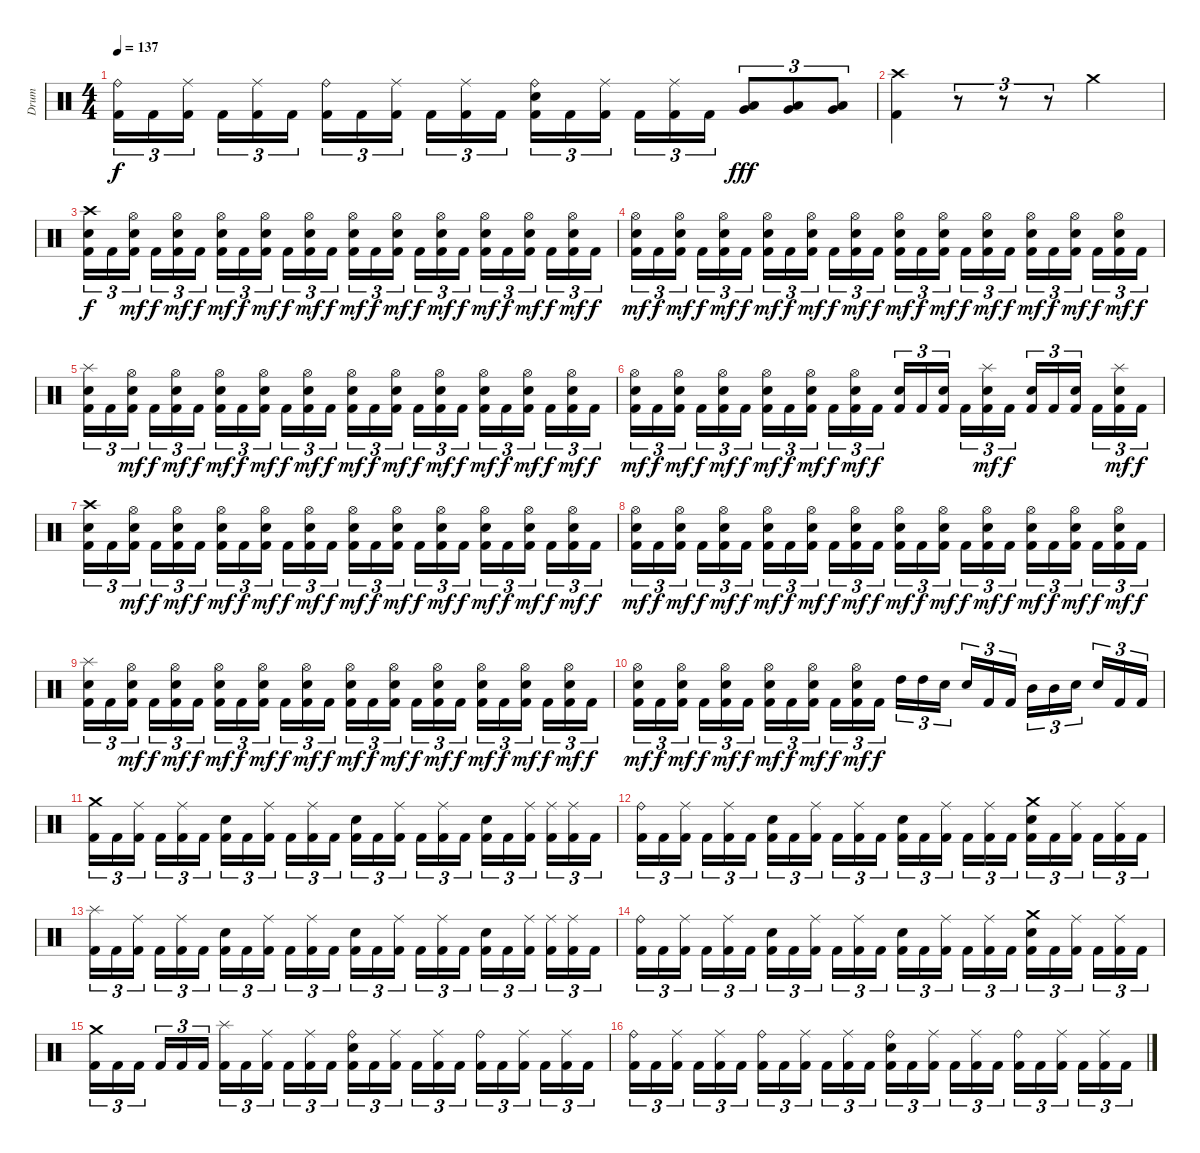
\track ("Drum" "Drum") {instrument percussion}
\staff {score}
\articulation defaults
\ts (4 4)
\tempo 137
\clef neutral
\ks c
("Ride (bell)" "Kick (hit) 2").16{tu (3 2) dy f} "Kick (hit) 2".16{tu (3 2)} ("Ride (middle)" "Kick (hit) 2").16{tu (3 2) beam splitsecondary} "Kick (hit) 2".16{tu (3 2)} ("Ride (middle)" "Kick (hit) 2").16{tu (3 2)} "Kick (hit) 2".16{tu (3 2)} ("Ride (bell)" "Kick (hit) 2").16{tu (3 2)} "Kick (hit) 2".16{tu (3 2)} ("Ride (middle)" "Kick (hit) 2").16{tu (3 2) beam splitsecondary} "Kick (hit) 2".16{tu (3 2)} ("Ride (middle)" "Kick (hit) 2").16{tu (3 2)} "Kick (hit) 2".16{tu (3 2)} ("Ride (bell)" "Electric Snare (hit)" "Kick (hit) 2").16{tu (3 2)} "Kick (hit) 2".16{tu (3 2)} ("Ride (middle)" "Kick (hit) 2").16{tu (3 2) beam splitsecondary} "Kick (hit) 2".16{tu (3 2)} ("Ride (middle)" "Kick (hit) 2").16{tu (3 2)} "Kick (hit) 2".16{tu (3 2)} ("Very Low Tom (hit)" "Low Floor Tom (hit)").8{tu (3 2) bd 60 dy fff} ("Very Low Tom (hit)" "Low Floor Tom (hit)").8{tu (3 2) bd 60} ("Very Low Tom (hit)" "Low Floor Tom (hit)").8{tu (3 2) bd 60} |
("Crash high (hit)" "Kick (hit) 2").4 r.8{tu (3 2)} r.8{tu (3 2)} r.8{tu (3 2) volume 0} "Crash medium (hit)".2{volume 13} |
("Crash high (hit)" "Electric Snare (hit)" "Kick (hit) 2").16{tu (3 2) dy f} "Kick (hit) 2".16{tu (3 2)} ("Hi-Hat (open)" "Electric Snare (hit)" "Kick (hit) 2").16{tu (3 2) dy mf beam splitsecondary} "Kick (hit) 2".16{tu (3 2) dy f} ("Hi-Hat (open)" "Electric Snare (hit)" "Kick (hit) 2").16{tu (3 2) dy mf} "Kick (hit) 2".16{tu (3 2) dy f} ("Hi-Hat (open)" "Electric Snare (hit)" "Kick (hit) 2").16{tu (3 2) dy mf} "Kick (hit) 2".16{tu (3 2) dy f} ("Hi-Hat (open)" "Electric Snare (hit)" "Kick (hit) 2").16{tu (3 2) dy mf beam splitsecondary} "Kick (hit) 2".16{tu (3 2) dy f} ("Hi-Hat (open)" "Electric Snare (hit)" "Kick (hit) 2").16{tu (3 2) dy mf} "Kick (hit) 2".16{tu (3 2) dy f} ("Hi-Hat (open)" "Electric Snare (hit)" "Kick (hit) 2").16{tu (3 2) dy mf} "Kick (hit) 2".16{tu (3 2) dy f} ("Hi-Hat (open)" "Electric Snare (hit)" "Kick (hit) 2").16{tu (3 2) dy mf beam splitsecondary} "Kick (hit) 2".16{tu (3 2) dy f} ("Hi-Hat (open)" "Electric Snare (hit)" "Kick (hit) 2").16{tu (3 2) dy mf} "Kick (hit) 2".16{tu (3 2) dy f} ("Hi-Hat (open)" "Electric Snare (hit)" "Kick (hit) 2").16{tu (3 2) dy mf} "Kick (hit) 2".16{tu (3 2) dy f} ("Hi-Hat (open)" "Electric Snare (hit)" "Kick (hit) 2").16{tu (3 2) dy mf beam splitsecondary} "Kick (hit) 2".16{tu (3 2) dy f} ("Hi-Hat (open)" "Electric Snare (hit)" "Kick (hit) 2").16{tu (3 2) dy mf} "Kick (hit) 2".16{tu (3 2) dy f} |
("Hi-Hat (open)" "Electric Snare (hit)" "Kick (hit) 2").16{tu (3 2) dy mf} "Kick (hit) 2".16{tu (3 2) dy f} ("Hi-Hat (open)" "Electric Snare (hit)" "Kick (hit) 2").16{tu (3 2) dy mf beam splitsecondary} "Kick (hit) 2".16{tu (3 2) dy f} ("Hi-Hat (open)" "Electric Snare (hit)" "Kick (hit) 2").16{tu (3 2) dy mf} "Kick (hit) 2".16{tu (3 2) dy f} ("Hi-Hat (open)" "Electric Snare (hit)" "Kick (hit) 2").16{tu (3 2) dy mf} "Kick (hit) 2".16{tu (3 2) dy f} ("Hi-Hat (open)" "Electric Snare (hit)" "Kick (hit) 2").16{tu (3 2) dy mf beam splitsecondary} "Kick (hit) 2".16{tu (3 2) dy f} ("Hi-Hat (open)" "Electric Snare (hit)" "Kick (hit) 2").16{tu (3 2) dy mf} "Kick (hit) 2".16{tu (3 2) dy f} ("Hi-Hat (open)" "Electric Snare (hit)" "Kick (hit) 2").16{tu (3 2) dy mf} "Kick (hit) 2".16{tu (3 2) dy f} ("Hi-Hat (open)" "Electric Snare (hit)" "Kick (hit) 2").16{tu (3 2) dy mf beam splitsecondary} "Kick (hit) 2".16{tu (3 2) dy f} ("Hi-Hat (open)" "Electric Snare (hit)" "Kick (hit) 2").16{tu (3 2) dy mf} "Kick (hit) 2".16{tu (3 2) dy f} ("Hi-Hat (open)" "Electric Snare (hit)" "Kick (hit) 2").16{tu (3 2) dy mf} "Kick (hit) 2".16{tu (3 2) dy f} ("Hi-Hat (open)" "Electric Snare (hit)" "Kick (hit) 2").16{tu (3 2) dy mf beam splitsecondary} "Kick (hit) 2".16{tu (3 2) dy f} ("Hi-Hat (open)" "Electric Snare (hit)" "Kick (hit) 2").16{tu (3 2) dy mf} "Kick (hit) 2".16{tu (3 2) dy f} |
("Splash (hit)" "Electric Snare (hit)" "Kick (hit) 2").16{tu (3 2)} "Kick (hit) 2".16{tu (3 2)} ("Hi-Hat (open)" "Electric Snare (hit)" "Kick (hit) 2").16{tu (3 2) dy mf beam splitsecondary} "Kick (hit) 2".16{tu (3 2) dy f} ("Hi-Hat (open)" "Electric Snare (hit)" "Kick (hit) 2").16{tu (3 2) dy mf} "Kick (hit) 2".16{tu (3 2) dy f} ("Hi-Hat (open)" "Electric Snare (hit)" "Kick (hit) 2").16{tu (3 2) dy mf} "Kick (hit) 2".16{tu (3 2) dy f} ("Hi-Hat (open)" "Electric Snare (hit)" "Kick (hit) 2").16{tu (3 2) dy mf beam splitsecondary} "Kick (hit) 2".16{tu (3 2) dy f} ("Hi-Hat (open)" "Electric Snare (hit)" "Kick (hit) 2").16{tu (3 2) dy mf} "Kick (hit) 2".16{tu (3 2) dy f} ("Hi-Hat (open)" "Electric Snare (hit)" "Kick (hit) 2").16{tu (3 2) dy mf} "Kick (hit) 2".16{tu (3 2) dy f} ("Hi-Hat (open)" "Electric Snare (hit)" "Kick (hit) 2").16{tu (3 2) dy mf beam splitsecondary} "Kick (hit) 2".16{tu (3 2) dy f} ("Hi-Hat (open)" "Electric Snare (hit)" "Kick (hit) 2").16{tu (3 2) dy mf} "Kick (hit) 2".16{tu (3 2) dy f} ("Hi-Hat (open)" "Electric Snare (hit)" "Kick (hit) 2").16{tu (3 2) dy mf} "Kick (hit) 2".16{tu (3 2) dy f} ("Hi-Hat (open)" "Electric Snare (hit)" "Kick (hit) 2").16{tu (3 2) dy mf beam splitsecondary} "Kick (hit) 2".16{tu (3 2) dy f} ("Hi-Hat (open)" "Electric Snare (hit)" "Kick (hit) 2").16{tu (3 2) dy mf} "Kick (hit) 2".16{tu (3 2) dy f} |
("Hi-Hat (open)" "Electric Snare (hit)" "Kick (hit) 2").16{tu (3 2) dy mf} "Kick (hit) 2".16{tu (3 2) dy f} ("Hi-Hat (open)" "Electric Snare (hit)" "Kick (hit) 2").16{tu (3 2) dy mf beam splitsecondary} "Kick (hit) 2".16{tu (3 2) dy f} ("Hi-Hat (open)" "Electric Snare (hit)" "Kick (hit) 2").16{tu (3 2) dy mf} "Kick (hit) 2".16{tu (3 2) dy f} ("Hi-Hat (open)" "Electric Snare (hit)" "Kick (hit) 2").16{tu (3 2) dy mf} "Kick (hit) 2".16{tu (3 2) dy f} ("Hi-Hat (open)" "Electric Snare (hit)" "Kick (hit) 2").16{tu (3 2) dy mf beam splitsecondary} "Kick (hit) 2".16{tu (3 2) dy f} ("Hi-Hat (open)" "Electric Snare (hit)" "Kick (hit) 2").16{tu (3 2) dy mf} "Kick (hit) 2".16{tu (3 2) dy f} ("Electric Snare (hit)" "Kick (hit) 2").16{tu (3 2)} "Kick (hit) 2".16{tu (3 2)} ("Electric Snare (hit)" "Kick (hit) 2").16{tu (3 2) beam splitsecondary} "Kick (hit) 2".16{tu (3 2)} ("Splash (hit)" "Electric Snare (hit)" "Kick (hit) 2").16{tu (3 2) dy mf} "Kick (hit) 2".16{tu (3 2) dy f} ("Electric Snare (hit)" "Kick (hit) 2").16{tu (3 2)} "Kick (hit) 2".16{tu (3 2)} ("Electric Snare (hit)" "Kick (hit) 2").16{tu (3 2) beam splitsecondary} "Kick (hit) 2".16{tu (3 2)} ("Splash (hit)" "Electric Snare (hit)" "Kick (hit) 2").16{tu (3 2) dy mf} "Kick (hit) 2".16{tu (3 2) dy f} |
("Crash high (hit)" "Electric Snare (hit)" "Kick (hit) 2").16{tu (3 2)} "Kick (hit) 2".16{tu (3 2)} ("Hi-Hat (open)" "Electric Snare (hit)" "Kick (hit) 2").16{tu (3 2) dy mf beam splitsecondary} "Kick (hit) 2".16{tu (3 2) dy f} ("Hi-Hat (open)" "Electric Snare (hit)" "Kick (hit) 2").16{tu (3 2) dy mf} "Kick (hit) 2".16{tu (3 2) dy f} ("Hi-Hat (open)" "Electric Snare (hit)" "Kick (hit) 2").16{tu (3 2) dy mf} "Kick (hit) 2".16{tu (3 2) dy f} ("Hi-Hat (open)" "Electric Snare (hit)" "Kick (hit) 2").16{tu (3 2) dy mf beam splitsecondary} "Kick (hit) 2".16{tu (3 2) dy f} ("Hi-Hat (open)" "Electric Snare (hit)" "Kick (hit) 2").16{tu (3 2) dy mf} "Kick (hit) 2".16{tu (3 2) dy f} ("Hi-Hat (open)" "Electric Snare (hit)" "Kick (hit) 2").16{tu (3 2) dy mf} "Kick (hit) 2".16{tu (3 2) dy f} ("Hi-Hat (open)" "Electric Snare (hit)" "Kick (hit) 2").16{tu (3 2) dy mf beam splitsecondary} "Kick (hit) 2".16{tu (3 2) dy f} ("Hi-Hat (open)" "Electric Snare (hit)" "Kick (hit) 2").16{tu (3 2) dy mf} "Kick (hit) 2".16{tu (3 2) dy f} ("Hi-Hat (open)" "Electric Snare (hit)" "Kick (hit) 2").16{tu (3 2) dy mf} "Kick (hit) 2".16{tu (3 2) dy f} ("Hi-Hat (open)" "Electric Snare (hit)" "Kick (hit) 2").16{tu (3 2) dy mf beam splitsecondary} "Kick (hit) 2".16{tu (3 2) dy f} ("Hi-Hat (open)" "Electric Snare (hit)" "Kick (hit) 2").16{tu (3 2) dy mf} "Kick (hit) 2".16{tu (3 2) dy f} |
("Hi-Hat (open)" "Electric Snare (hit)" "Kick (hit) 2").16{tu (3 2) dy mf} "Kick (hit) 2".16{tu (3 2) dy f} ("Hi-Hat (open)" "Electric Snare (hit)" "Kick (hit) 2").16{tu (3 2) dy mf beam splitsecondary} "Kick (hit) 2".16{tu (3 2) dy f} ("Hi-Hat (open)" "Electric Snare (hit)" "Kick (hit) 2").16{tu (3 2) dy mf} "Kick (hit) 2".16{tu (3 2) dy f} ("Hi-Hat (open)" "Electric Snare (hit)" "Kick (hit) 2").16{tu (3 2) dy mf} "Kick (hit) 2".16{tu (3 2) dy f} ("Hi-Hat (open)" "Electric Snare (hit)" "Kick (hit) 2").16{tu (3 2) dy mf beam splitsecondary} "Kick (hit) 2".16{tu (3 2) dy f} ("Hi-Hat (open)" "Electric Snare (hit)" "Kick (hit) 2").16{tu (3 2) dy mf} "Kick (hit) 2".16{tu (3 2) dy f} ("Hi-Hat (open)" "Electric Snare (hit)" "Kick (hit) 2").16{tu (3 2) dy mf} "Kick (hit) 2".16{tu (3 2) dy f} ("Hi-Hat (open)" "Electric Snare (hit)" "Kick (hit) 2").16{tu (3 2) dy mf beam splitsecondary} "Kick (hit) 2".16{tu (3 2) dy f} ("Hi-Hat (open)" "Electric Snare (hit)" "Kick (hit) 2").16{tu (3 2) dy mf} "Kick (hit) 2".16{tu (3 2) dy f} ("Hi-Hat (open)" "Electric Snare (hit)" "Kick (hit) 2").16{tu (3 2) dy mf} "Kick (hit) 2".16{tu (3 2) dy f} ("Hi-Hat (open)" "Electric Snare (hit)" "Kick (hit) 2").16{tu (3 2) dy mf beam splitsecondary} "Kick (hit) 2".16{tu (3 2) dy f} ("Hi-Hat (open)" "Electric Snare (hit)" "Kick (hit) 2").16{tu (3 2) dy mf} "Kick (hit) 2".16{tu (3 2) dy f} |
("Splash (hit)" "Electric Snare (hit)" "Kick (hit) 2").16{tu (3 2)} "Kick (hit) 2".16{tu (3 2)} ("Hi-Hat (open)" "Electric Snare (hit)" "Kick (hit) 2").16{tu (3 2) dy mf beam splitsecondary} "Kick (hit) 2".16{tu (3 2) dy f} ("Hi-Hat (open)" "Electric Snare (hit)" "Kick (hit) 2").16{tu (3 2) dy mf} "Kick (hit) 2".16{tu (3 2) dy f} ("Hi-Hat (open)" "Electric Snare (hit)" "Kick (hit) 2").16{tu (3 2) dy mf} "Kick (hit) 2".16{tu (3 2) dy f} ("Hi-Hat (open)" "Electric Snare (hit)" "Kick (hit) 2").16{tu (3 2) dy mf beam splitsecondary} "Kick (hit) 2".16{tu (3 2) dy f} ("Hi-Hat (open)" "Electric Snare (hit)" "Kick (hit) 2").16{tu (3 2) dy mf} "Kick (hit) 2".16{tu (3 2) dy f} ("Hi-Hat (open)" "Electric Snare (hit)" "Kick (hit) 2").16{tu (3 2) dy mf} "Kick (hit) 2".16{tu (3 2) dy f} ("Hi-Hat (open)" "Electric Snare (hit)" "Kick (hit) 2").16{tu (3 2) dy mf beam splitsecondary} "Kick (hit) 2".16{tu (3 2) dy f} ("Hi-Hat (open)" "Electric Snare (hit)" "Kick (hit) 2").16{tu (3 2) dy mf} "Kick (hit) 2".16{tu (3 2) dy f} ("Hi-Hat (open)" "Electric Snare (hit)" "Kick (hit) 2").16{tu (3 2) dy mf} "Kick (hit) 2".16{tu (3 2) dy f} ("Hi-Hat (open)" "Electric Snare (hit)" "Kick (hit) 2").16{tu (3 2) dy mf beam splitsecondary} "Kick (hit) 2".16{tu (3 2) dy f} ("Hi-Hat (open)" "Electric Snare (hit)" "Kick (hit) 2").16{tu (3 2) dy mf} "Kick (hit) 2".16{tu (3 2) dy f} |
("Hi-Hat (open)" "Electric Snare (hit)" "Kick (hit) 2").16{tu (3 2) dy mf} "Kick (hit) 2".16{tu (3 2) dy f} ("Hi-Hat (open)" "Electric Snare (hit)" "Kick (hit) 2").16{tu (3 2) dy mf beam splitsecondary} "Kick (hit) 2".16{tu (3 2) dy f} ("Hi-Hat (open)" "Electric Snare (hit)" "Kick (hit) 2").16{tu (3 2) dy mf} "Kick (hit) 2".16{tu (3 2) dy f} ("Hi-Hat (open)" "Electric Snare (hit)" "Kick (hit) 2").16{tu (3 2) dy mf} "Kick (hit) 2".16{tu (3 2) dy f} ("Hi-Hat (open)" "Electric Snare (hit)" "Kick (hit) 2").16{tu (3 2) dy mf beam splitsecondary} "Kick (hit) 2".16{tu (3 2) dy f} ("Hi-Hat (open)" "Electric Snare (hit)" "Kick (hit) 2").16{tu (3 2) dy mf} "Kick (hit) 2".16{tu (3 2) dy f} "High Tom (hit)".16{tu (3 2)} "High Tom (hit)".16{tu (3 2)} "Electric Snare (hit)".16{tu (3 2) beam splitsecondary} "Electric Snare (hit)".16{tu (3 2)} "Kick (hit) 2".16{tu (3 2)} "Kick (hit) 2".16{tu (3 2)} "Mid Tom (hit)".16{tu (3 2)} "Mid Tom (hit)".16{tu (3 2)} "Electric Snare (hit)".16{tu (3 2) beam splitsecondary} "Electric Snare (hit)".16{tu (3 2)} "Kick (hit) 2".16{tu (3 2)} "Kick (hit) 2".16{tu (3 2)} |
("Crash medium (hit)" "Kick (hit) 2").16{tu (3 2)} "Kick (hit) 2".16{tu (3 2)} ("Ride (middle)" "Kick (hit) 2").16{tu (3 2) beam splitsecondary} "Kick (hit) 2".16{tu (3 2)} ("Ride (middle)" "Kick (hit) 2").16{tu (3 2)} "Kick (hit) 2".16{tu (3 2)} ("Electric Snare (hit)" "Kick (hit) 2").16{tu (3 2)} "Kick (hit) 2".16{tu (3 2)} ("Ride (middle)" "Kick (hit) 2").16{tu (3 2) beam splitsecondary} "Kick (hit) 2".16{tu (3 2)} ("Ride (middle)" "Kick (hit) 2").16{tu (3 2)} "Kick (hit) 2".16{tu (3 2)} ("Electric Snare (hit)" "Kick (hit) 2").16{tu (3 2)} "Kick (hit) 2".16{tu (3 2)} ("Ride (middle)" "Kick (hit) 2").16{tu (3 2) beam splitsecondary} "Kick (hit) 2".16{tu (3 2)} ("Ride (middle)" "Kick (hit) 2").16{tu (3 2)} "Kick (hit) 2".16{tu (3 2)} ("Electric Snare (hit)" "Kick (hit) 2").16{tu (3 2)} "Kick (hit) 2".16{tu (3 2)} ("Ride (middle)" "Kick (hit) 2").16{tu (3 2) beam splitsecondary} ("Ride (middle)" "Kick (hit) 2").16{tu (3 2)} ("Ride (middle)" "Kick (hit) 2").16{tu (3 2)} "Kick (hit) 2".16{tu (3 2)} |
("Ride (bell)" "Kick (hit) 2").16{tu (3 2)} "Kick (hit) 2".16{tu (3 2)} ("Ride (middle)" "Kick (hit) 2").16{tu (3 2) beam splitsecondary} "Kick (hit) 2".16{tu (3 2)} ("Ride (middle)" "Kick (hit) 2").16{tu (3 2)} "Kick (hit) 2".16{tu (3 2)} ("Electric Snare (hit)" "Kick (hit) 2").16{tu (3 2)} "Kick (hit) 2".16{tu (3 2)} ("Ride (middle)" "Kick (hit) 2").16{tu (3 2) beam splitsecondary} "Kick (hit) 2".16{tu (3 2)} ("Ride (middle)" "Kick (hit) 2").16{tu (3 2)} "Kick (hit) 2".16{tu (3 2)} ("Electric Snare (hit)" "Kick (hit) 2").16{tu (3 2)} "Kick (hit) 2".16{tu (3 2)} ("Ride (middle)" "Kick (hit) 2").16{tu (3 2) beam splitsecondary} "Kick (hit) 2".16{tu (3 2)} ("Ride (middle)" "Kick (hit) 2").16{tu (3 2)} "Kick (hit) 2".16{tu (3 2)} ("Crash medium (hit)" "Electric Snare (hit)" "Kick (hit) 2").16{tu (3 2)} "Kick (hit) 2".16{tu (3 2)} ("Ride (middle)" "Kick (hit) 2").16{tu (3 2) beam splitsecondary} "Kick (hit) 2".16{tu (3 2)} ("Ride (middle)" "Kick (hit) 2").16{tu (3 2)} "Kick (hit) 2".16{tu (3 2)} |
("Splash (hit)" "Kick (hit) 2").16{tu (3 2)} "Kick (hit) 2".16{tu (3 2)} ("Ride (middle)" "Kick (hit) 2").16{tu (3 2) beam splitsecondary} "Kick (hit) 2".16{tu (3 2)} ("Ride (middle)" "Kick (hit) 2").16{tu (3 2)} "Kick (hit) 2".16{tu (3 2)} ("Electric Snare (hit)" "Kick (hit) 2").16{tu (3 2)} "Kick (hit) 2".16{tu (3 2)} ("Ride (middle)" "Kick (hit) 2").16{tu (3 2) beam splitsecondary} "Kick (hit) 2".16{tu (3 2)} ("Ride (middle)" "Kick (hit) 2").16{tu (3 2)} "Kick (hit) 2".16{tu (3 2)} ("Electric Snare (hit)" "Kick (hit) 2").16{tu (3 2)} "Kick (hit) 2".16{tu (3 2)} ("Ride (middle)" "Kick (hit) 2").16{tu (3 2) beam splitsecondary} "Kick (hit) 2".16{tu (3 2)} ("Ride (middle)" "Kick (hit) 2").16{tu (3 2)} "Kick (hit) 2".16{tu (3 2)} ("Electric Snare (hit)" "Kick (hit) 2").16{tu (3 2)} "Kick (hit) 2".16{tu (3 2)} ("Ride (middle)" "Kick (hit) 2").16{tu (3 2) beam splitsecondary} ("Ride (middle)" "Kick (hit) 2").16{tu (3 2)} ("Ride (middle)" "Kick (hit) 2").16{tu (3 2)} "Kick (hit) 2".16{tu (3 2)} |
("Ride (bell)" "Kick (hit) 2").16{tu (3 2)} "Kick (hit) 2".16{tu (3 2)} ("Ride (middle)" "Kick (hit) 2").16{tu (3 2) beam splitsecondary} "Kick (hit) 2".16{tu (3 2)} ("Ride (middle)" "Kick (hit) 2").16{tu (3 2)} "Kick (hit) 2".16{tu (3 2)} ("Electric Snare (hit)" "Kick (hit) 2").16{tu (3 2)} "Kick (hit) 2".16{tu (3 2)} ("Ride (middle)" "Kick (hit) 2").16{tu (3 2) beam splitsecondary} "Kick (hit) 2".16{tu (3 2)} ("Ride (middle)" "Kick (hit) 2").16{tu (3 2)} "Kick (hit) 2".16{tu (3 2)} ("Electric Snare (hit)" "Kick (hit) 2").16{tu (3 2)} "Kick (hit) 2".16{tu (3 2)} ("Ride (middle)" "Kick (hit) 2").16{tu (3 2) beam splitsecondary} "Kick (hit) 2".16{tu (3 2)} ("Ride (middle)" "Kick (hit) 2").16{tu (3 2)} "Kick (hit) 2".16{tu (3 2)} ("Crash medium (hit)" "Electric Snare (hit)" "Kick (hit) 2").16{tu (3 2)} "Kick (hit) 2".16{tu (3 2)} ("Ride (middle)" "Kick (hit) 2").16{tu (3 2) beam splitsecondary} "Kick (hit) 2".16{tu (3 2)} ("Ride (middle)" "Kick (hit) 2").16{tu (3 2)} "Kick (hit) 2".16{tu (3 2)} |
("Crash medium (hit)" "Kick (hit) 2").16{tu (3 2)} "Kick (hit) 2".16{tu (3 2)} "Kick (hit) 2".16{tu (3 2) beam splitsecondary} "Kick (hit) 2".16{tu (3 2)} "Kick (hit) 2".16{tu (3 2)} "Kick (hit) 2".16{tu (3 2)} ("Splash (hit)" "Kick (hit) 2").16{tu (3 2)} "Kick (hit) 2".16{tu (3 2)} ("Ride (middle)" "Kick (hit) 2").16{tu (3 2) beam splitsecondary} "Kick (hit) 2".16{tu (3 2)} ("Ride (middle)" "Kick (hit) 2").16{tu (3 2)} "Kick (hit) 2".16{tu (3 2)} ("Ride (bell)" "Electric Snare (hit)" "Kick (hit) 2").16{tu (3 2)} "Kick (hit) 2".16{tu (3 2)} ("Ride (middle)" "Kick (hit) 2").16{tu (3 2) beam splitsecondary} "Kick (hit) 2".16{tu (3 2)} ("Ride (middle)" "Kick (hit) 2").16{tu (3 2)} "Kick (hit) 2".16{tu (3 2)} ("Ride (bell)" "Kick (hit) 2").16{tu (3 2)} "Kick (hit) 2".16{tu (3 2)} ("Ride (middle)" "Kick (hit) 2").16{tu (3 2) beam splitsecondary} "Kick (hit) 2".16{tu (3 2)} ("Ride (middle)" "Kick (hit) 2").16{tu (3 2)} "Kick (hit) 2".16{tu (3 2)} |
("Ride (bell)" "Kick (hit) 2").16{tu (3 2)} "Kick (hit) 2".16{tu (3 2)} ("Ride (middle)" "Kick (hit) 2").16{tu (3 2) beam splitsecondary} "Kick (hit) 2".16{tu (3 2)} ("Ride (middle)" "Kick (hit) 2").16{tu (3 2)} "Kick (hit) 2".16{tu (3 2)} ("Ride (bell)" "Kick (hit) 2").16{tu (3 2)} "Kick (hit) 2".16{tu (3 2)} ("Ride (middle)" "Kick (hit) 2").16{tu (3 2) beam splitsecondary} "Kick (hit) 2".16{tu (3 2)} ("Ride (middle)" "Kick (hit) 2").16{tu (3 2)} "Kick (hit) 2".16{tu (3 2)} ("Ride (bell)" "Electric Snare (hit)" "Kick (hit) 2").16{tu (3 2)} "Kick (hit) 2".16{tu (3 2)} ("Ride (middle)" "Kick (hit) 2").16{tu (3 2) beam splitsecondary} "Kick (hit) 2".16{tu (3 2)} ("Ride (middle)" "Kick (hit) 2").16{tu (3 2)} "Kick (hit) 2".16{tu (3 2)} ("Ride (bell)" "Kick (hit) 2").16{tu (3 2)} "Kick (hit) 2".16{tu (3 2)} ("Ride (middle)" "Kick (hit) 2").16{tu (3 2) beam splitsecondary} "Kick (hit) 2".16{tu (3 2)} ("Ride (middle)" "Kick (hit) 2").16{tu (3 2)} "Kick (hit) 2".16{tu (3 2)}
